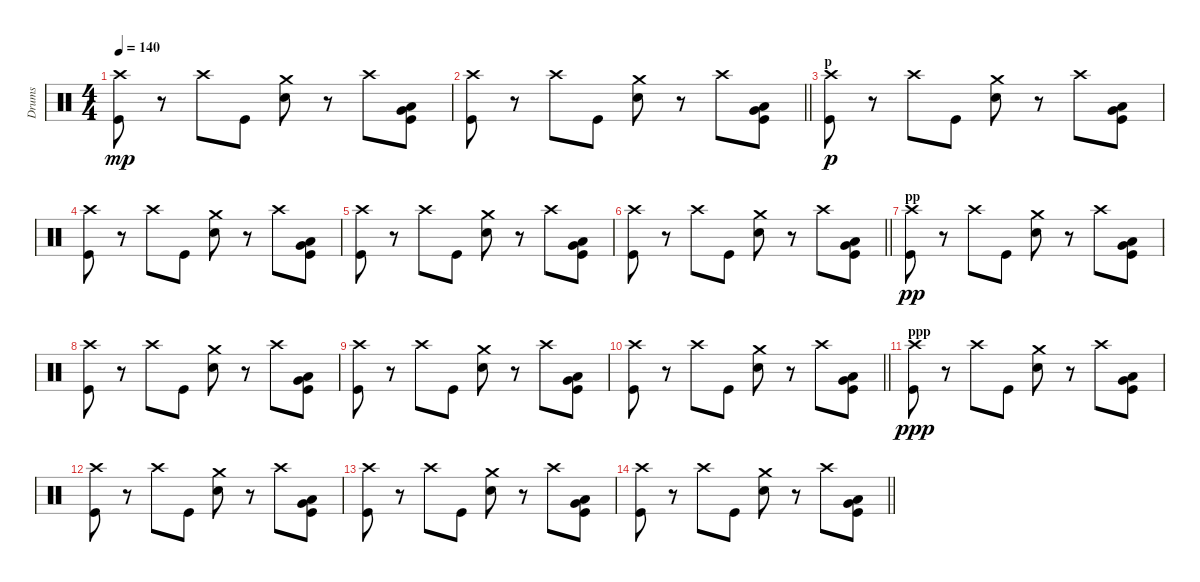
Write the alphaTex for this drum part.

\track ("Drums" "Drums") {instrument percussion}
\staff {score}
\articulation defaults
\ts (4 4)
\tempo 140
\clef neutral
\ks c
("Crash high (hit)" "Kick (hit)").8{dy mp} r.8 "Crash high (hit)".8 "Kick (hit)".8 ("Crash medium (hit)" "Snare (hit) 2").8 r.8 "Crash high (hit)".8 ("Low Tom (hit)" "Very Low Tom (hit)" "Kick (hit)").8 |
\barLineRight lightlight
("Crash high (hit)" "Kick (hit)").8 r.8 "Crash high (hit)".8 "Kick (hit)".8 ("Crash medium (hit)" "Snare (hit) 2").8 r.8 "Crash high (hit)".8 ("Low Tom (hit)" "Very Low Tom (hit)" "Kick (hit)").8 |
\section ("" "p")
("Crash high (hit)" "Kick (hit)").8{dy p} r.8 "Crash high (hit)".8 "Kick (hit)".8 ("Crash medium (hit)" "Snare (hit) 2").8 r.8 "Crash high (hit)".8 ("Low Tom (hit)" "Very Low Tom (hit)" "Kick (hit)").8 |
("Crash high (hit)" "Kick (hit)").8 r.8 "Crash high (hit)".8 "Kick (hit)".8 ("Crash medium (hit)" "Snare (hit) 2").8 r.8 "Crash high (hit)".8 ("Low Tom (hit)" "Very Low Tom (hit)" "Kick (hit)").8 |
("Crash high (hit)" "Kick (hit)").8 r.8 "Crash high (hit)".8 "Kick (hit)".8 ("Crash medium (hit)" "Snare (hit) 2").8 r.8 "Crash high (hit)".8 ("Low Tom (hit)" "Very Low Tom (hit)" "Kick (hit)").8 |
\barLineRight lightlight
("Crash high (hit)" "Kick (hit)").8 r.8 "Crash high (hit)".8 "Kick (hit)".8 ("Crash medium (hit)" "Snare (hit) 2").8 r.8 "Crash high (hit)".8 ("Low Tom (hit)" "Very Low Tom (hit)" "Kick (hit)").8 |
\section ("" "pp")
("Crash high (hit)" "Kick (hit)").8{dy pp} r.8 "Crash high (hit)".8 "Kick (hit)".8 ("Crash medium (hit)" "Snare (hit) 2").8 r.8 "Crash high (hit)".8 ("Low Tom (hit)" "Very Low Tom (hit)" "Kick (hit)").8 |
("Crash high (hit)" "Kick (hit)").8 r.8 "Crash high (hit)".8 "Kick (hit)".8 ("Crash medium (hit)" "Snare (hit) 2").8 r.8 "Crash high (hit)".8 ("Low Tom (hit)" "Very Low Tom (hit)" "Kick (hit)").8 |
("Crash high (hit)" "Kick (hit)").8 r.8 "Crash high (hit)".8 "Kick (hit)".8 ("Crash medium (hit)" "Snare (hit) 2").8 r.8 "Crash high (hit)".8 ("Low Tom (hit)" "Very Low Tom (hit)" "Kick (hit)").8 |
\barLineRight lightlight
("Crash high (hit)" "Kick (hit)").8 r.8 "Crash high (hit)".8 "Kick (hit)".8 ("Crash medium (hit)" "Snare (hit) 2").8 r.8 "Crash high (hit)".8 ("Low Tom (hit)" "Very Low Tom (hit)" "Kick (hit)").8 |
\section ("" "ppp")
("Crash high (hit)" "Kick (hit)").8{dy ppp} r.8 "Crash high (hit)".8 "Kick (hit)".8 ("Crash medium (hit)" "Snare (hit) 2").8 r.8 "Crash high (hit)".8 ("Low Tom (hit)" "Very Low Tom (hit)" "Kick (hit)").8 |
("Crash high (hit)" "Kick (hit)").8 r.8 "Crash high (hit)".8 "Kick (hit)".8 ("Crash medium (hit)" "Snare (hit) 2").8 r.8 "Crash high (hit)".8 ("Low Tom (hit)" "Very Low Tom (hit)" "Kick (hit)").8 |
("Crash high (hit)" "Kick (hit)").8 r.8 "Crash high (hit)".8 "Kick (hit)".8 ("Crash medium (hit)" "Snare (hit) 2").8 r.8 "Crash high (hit)".8 ("Low Tom (hit)" "Very Low Tom (hit)" "Kick (hit)").8 |
\barLineRight lightlight
("Crash high (hit)" "Kick (hit)").8 r.8 "Crash high (hit)".8 "Kick (hit)".8 ("Crash medium (hit)" "Snare (hit) 2").8 r.8 "Crash high (hit)".8 ("Low Tom (hit)" "Very Low Tom (hit)" "Kick (hit)").8
